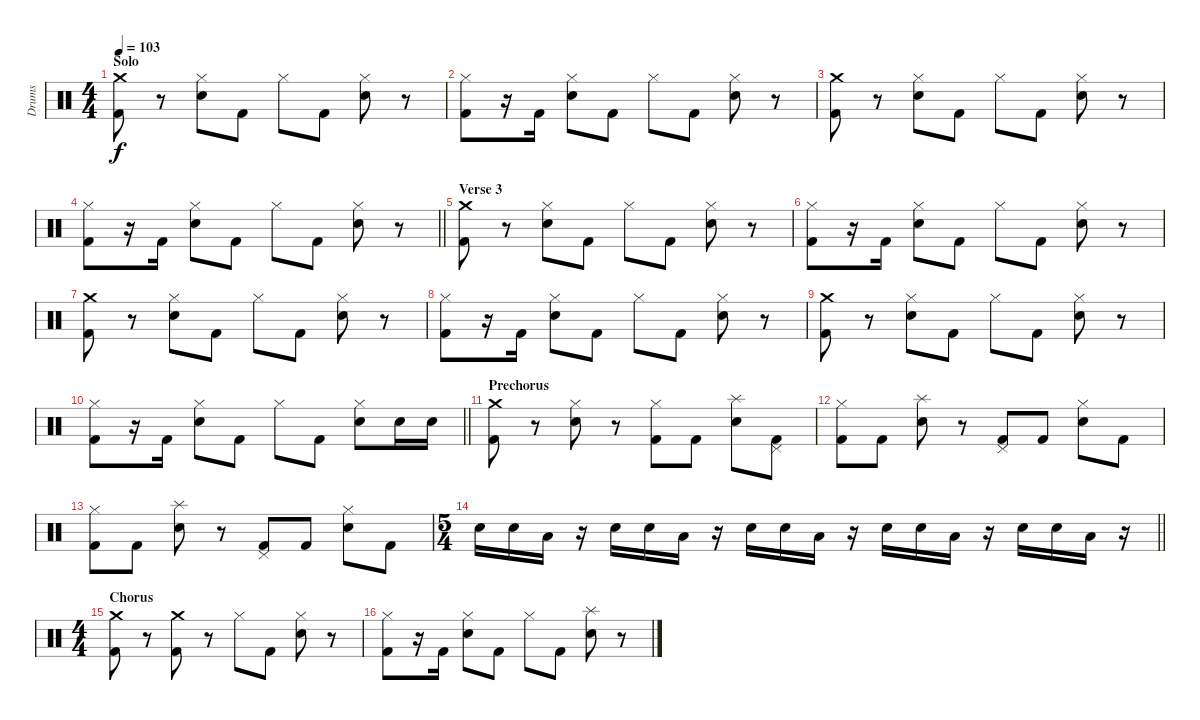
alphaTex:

\track ("Drums" "Drums") {instrument percussion}
\staff {score}
\articulation defaults
\ts (4 4)
\section ("" "Solo")
\tempo 103
\clef neutral
\ks c
("Crash medium (hit)" "Kick (hit) 2").8{dy f} r.8 ("Hi-Hat (closed)" "Snare (hit) 2").8 "Kick (hit) 2".8 "Hi-Hat (closed)".8 "Kick (hit) 2".8 ("Hi-Hat (closed)" "Snare (hit) 2").8 r.8 |
("Hi-Hat (closed)" "Kick (hit) 2").8 r.16 "Kick (hit) 2".16 ("Hi-Hat (closed)" "Snare (hit) 2").8 "Kick (hit) 2".8 "Hi-Hat (closed)".8 "Kick (hit) 2".8 ("Hi-Hat (closed)" "Snare (hit) 2").8 r.8 |
("Crash medium (hit)" "Kick (hit) 2").8 r.8 ("Hi-Hat (closed)" "Snare (hit) 2").8 "Kick (hit) 2".8 "Hi-Hat (closed)".8 "Kick (hit) 2".8 ("Hi-Hat (closed)" "Snare (hit) 2").8 r.8 |
\barLineRight lightlight
("Hi-Hat (closed)" "Kick (hit) 2").8 r.16 "Kick (hit) 2".16 ("Hi-Hat (closed)" "Snare (hit) 2").8 "Kick (hit) 2".8 "Hi-Hat (closed)".8 "Kick (hit) 2".8 ("Hi-Hat (closed)" "Snare (hit) 2").8 r.8 |
\section ("" "Verse 3")
("Crash medium (hit)" "Kick (hit) 2").8 r.8 ("Hi-Hat (closed)" "Snare (hit) 2").8 "Kick (hit) 2".8 "Hi-Hat (closed)".8 "Kick (hit) 2".8 ("Hi-Hat (closed)" "Snare (hit) 2").8 r.8 |
("Hi-Hat (closed)" "Kick (hit) 2").8 r.16 "Kick (hit) 2".16 ("Hi-Hat (closed)" "Snare (hit) 2").8 "Kick (hit) 2".8 "Hi-Hat (closed)".8 "Kick (hit) 2".8 ("Hi-Hat (closed)" "Snare (hit) 2").8 r.8 |
("Crash medium (hit)" "Kick (hit) 2").8 r.8 ("Hi-Hat (closed)" "Snare (hit) 2").8 "Kick (hit) 2".8 "Hi-Hat (closed)".8 "Kick (hit) 2".8 ("Hi-Hat (closed)" "Snare (hit) 2").8 r.8 |
("Hi-Hat (closed)" "Kick (hit) 2").8 r.16 "Kick (hit) 2".16 ("Hi-Hat (closed)" "Snare (hit) 2").8 "Kick (hit) 2".8 "Hi-Hat (closed)".8 "Kick (hit) 2".8 ("Hi-Hat (closed)" "Snare (hit) 2").8 r.8 |
("Crash medium (hit)" "Kick (hit) 2").8 r.8 ("Hi-Hat (closed)" "Snare (hit) 2").8 "Kick (hit) 2".8 "Hi-Hat (closed)".8 "Kick (hit) 2".8 ("Hi-Hat (closed)" "Snare (hit) 2").8 r.8 |
\barLineRight lightlight
("Hi-Hat (closed)" "Kick (hit) 2").8 r.16 "Kick (hit) 2".16 ("Hi-Hat (closed)" "Snare (hit) 2").8 "Kick (hit) 2".8 "Hi-Hat (closed)".8 "Kick (hit) 2".8 ("Hi-Hat (closed)" "Snare (hit) 2").8 "Snare (hit) 2".16 "Snare (hit) 2".16 |
\section ("" "Prechorus")
("Crash medium (hit)" "Kick (hit) 2").8 r.8 ("Hi-Hat (closed)" "Snare (hit) 2").8 r.8 ("Hi-Hat (closed)" "Kick (hit) 2").8 "Kick (hit) 2".8 ("Splash (hit)" "Snare (hit) 2").8 ("Pedal Hi-Hat (hit)" "Kick (hit) 2").8 |
("Hi-Hat (closed)" "Kick (hit) 2").8 "Kick (hit) 2".8 ("Splash (hit)" "Snare (hit) 2").8 r.8 ("Pedal Hi-Hat (hit)" "Kick (hit) 2").8 "Kick (hit) 2".8 ("Hi-Hat (closed)" "Snare (hit) 2").8 "Kick (hit) 2".8 |
("Hi-Hat (closed)" "Kick (hit) 2").8 "Kick (hit) 2".8 ("Splash (hit)" "Snare (hit) 2").8 r.8 ("Pedal Hi-Hat (hit)" "Kick (hit) 2").8 "Kick (hit) 2".8 ("Hi-Hat (closed)" "Snare (hit) 2").8 "Kick (hit) 2".8 |
\ts (5 4)
\barLineRight lightlight "Snare (hit) 2".16 "Snare (hit) 2".16 "Low Tom (hit)".16
r.16 "Snare (hit) 2".16 "Snare (hit) 2".16 "Low Tom (hit)".16 r.16 "Snare (hit) 2".16 "Snare (hit) 2".16 "Low Tom (hit)".16 r.16 "Snare (hit) 2".16 "Snare (hit) 2".16 "Low Tom (hit)".16 r.16 "Snare (hit) 2".16 "Snare (hit) 2".16 "Low Tom (hit)".16 r.16 |
\ts (4 4)
\section ("" "Chorus")
("Crash medium (hit)" "Kick (hit) 2").8 r.8 ("Crash medium (hit)" "Kick (hit) 2").8 r.8 "Hi-Hat (closed)".8 "Kick (hit) 2".8 ("Hi-Hat (closed)" "Snare (hit) 2").8 r.8 |
("Hi-Hat (closed)" "Kick (hit) 2").8 r.16 "Kick (hit) 2".16 ("Hi-Hat (closed)" "Snare (hit) 2").8 "Kick (hit) 2".8 "Hi-Hat (closed)".8 "Kick (hit) 2".8 ("Splash (hit)" "Snare (hit) 2").8 r.8
